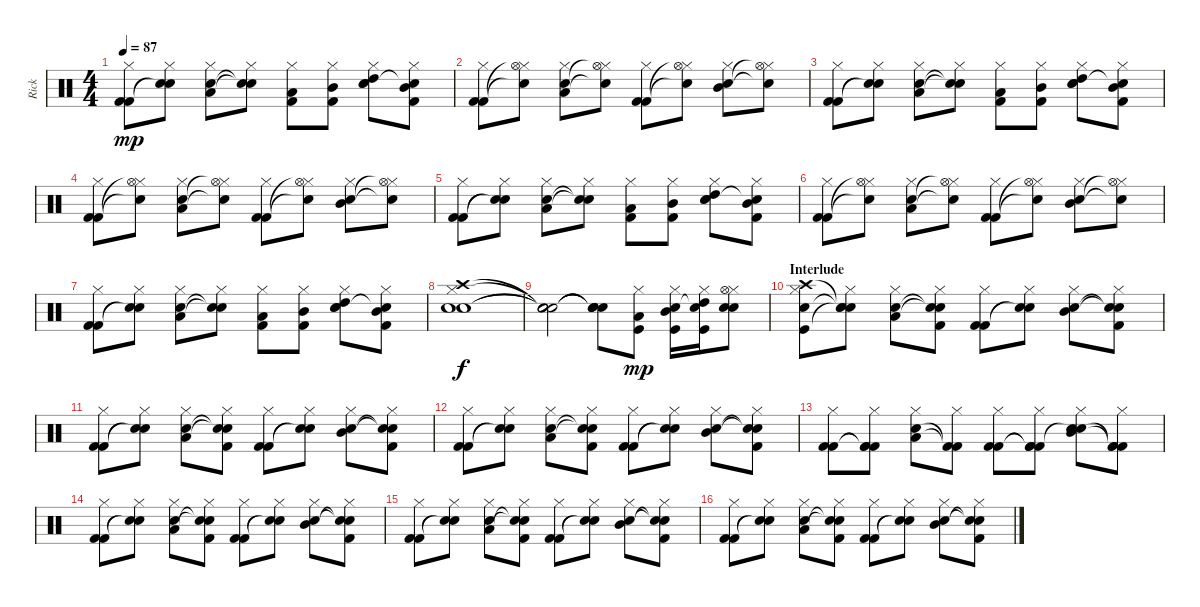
\track ("Rick" "Rick") {instrument percussion}
\staff {score}
\articulation defaults
\ts (4 4)
\tempo 87
\clef neutral
\ks c
("Hi-Hat (closed)" "Kick (hit) 2" "Kick (hit) 2").8{dy mp} ("Hi-Hat (closed)" "Snare (hit)"{t} "Snare (hit)"{t}).8 ("Hi-Hat (closed)" "Electric Snare (hit)" "Low Tom (hit)").8 ("Hi-Hat (closed)" "Snare (hit)"{t} "Snare (hit)"{t}).8 ("Hi-Hat (closed)" "Low Tom (hit)" "Kick (hit) 2").8 ("Hi-Hat (closed)" "Mid Tom (hit)" "Kick (hit) 2").8 ("Hi-Hat (closed)" "Electric Snare (hit)" "High Tom (hit)" "Snare (hit) 2").8 ("Hi-Hat (closed)" "Mid Tom (hit)" "Kick (hit) 2" "Snare (hit)"{t}).8 |
("Hi-Hat (closed)" "Kick (hit) 2" "Kick (hit) 2").8 ("Hi-Hat (closed)" "Hi-Hat (open)"{t} "Snare (hit)"{t}).8 ("Hi-Hat (closed)" "Electric Snare (hit)" "Low Tom (hit)").8 ("Hi-Hat (closed)" "Hi-Hat (open)"{t} "Snare (hit)"{t}).8 ("Hi-Hat (closed)" "Kick (hit) 2" "Kick (hit) 2").8 ("Hi-Hat (closed)" "Hi-Hat (open)"{t} "Snare (hit)"{t}).8 ("Hi-Hat (closed)" "Electric Snare (hit)" "Mid Tom (hit)").8 ("Hi-Hat (closed)" "Hi-Hat (open)"{t} "Snare (hit)"{t}).8 |
("Hi-Hat (closed)" "Kick (hit) 2" "Kick (hit) 2").8 ("Hi-Hat (closed)" "Snare (hit)"{t} "Snare (hit)"{t}).8 ("Hi-Hat (closed)" "Electric Snare (hit)" "Low Tom (hit)").8 ("Hi-Hat (closed)" "Snare (hit)"{t} "Snare (hit)"{t}).8 ("Hi-Hat (closed)" "Low Tom (hit)" "Kick (hit) 2").8 ("Hi-Hat (closed)" "Mid Tom (hit)" "Kick (hit) 2").8 ("Hi-Hat (closed)" "Electric Snare (hit)" "High Tom (hit)" "Snare (hit) 2").8 ("Hi-Hat (closed)" "Mid Tom (hit)" "Kick (hit) 2" "Snare (hit)"{t}).8 |
("Hi-Hat (closed)" "Kick (hit) 2" "Kick (hit) 2").8 ("Hi-Hat (closed)" "Hi-Hat (open)"{t} "Snare (hit)"{t}).8 ("Hi-Hat (closed)" "Electric Snare (hit)" "Low Tom (hit)").8 ("Hi-Hat (closed)" "Hi-Hat (open)"{t} "Snare (hit)"{t}).8 ("Hi-Hat (closed)" "Kick (hit) 2" "Kick (hit) 2").8 ("Hi-Hat (closed)" "Hi-Hat (open)"{t} "Snare (hit)"{t}).8 ("Hi-Hat (closed)" "Electric Snare (hit)" "Mid Tom (hit)").8 ("Hi-Hat (closed)" "Hi-Hat (open)"{t} "Snare (hit)"{t}).8 |
("Hi-Hat (closed)" "Kick (hit) 2" "Kick (hit) 2").8 ("Hi-Hat (closed)" "Snare (hit)"{t} "Snare (hit)"{t}).8 ("Hi-Hat (closed)" "Electric Snare (hit)" "Low Tom (hit)").8 ("Hi-Hat (closed)" "Snare (hit)"{t} "Snare (hit)"{t}).8 ("Hi-Hat (closed)" "Low Tom (hit)" "Kick (hit) 2").8 ("Hi-Hat (closed)" "Mid Tom (hit)" "Kick (hit) 2").8 ("Hi-Hat (closed)" "Electric Snare (hit)" "High Tom (hit)" "Snare (hit) 2").8 ("Hi-Hat (closed)" "Mid Tom (hit)" "Kick (hit) 2" "Snare (hit)"{t}).8 |
("Hi-Hat (closed)" "Kick (hit) 2" "Kick (hit) 2").8 ("Hi-Hat (closed)" "Hi-Hat (open)"{t} "Snare (hit)"{t}).8 ("Hi-Hat (closed)" "Electric Snare (hit)" "Low Tom (hit)").8 ("Hi-Hat (closed)" "Hi-Hat (open)"{t} "Snare (hit)"{t}).8 ("Hi-Hat (closed)" "Kick (hit) 2" "Kick (hit) 2").8 ("Hi-Hat (closed)" "Hi-Hat (open)"{t} "Snare (hit)"{t}).8 ("Hi-Hat (closed)" "Electric Snare (hit)" "Mid Tom (hit)").8 ("Hi-Hat (closed)" "Hi-Hat (open)"{t} "Snare (hit)"{t}).8 |
("Hi-Hat (closed)" "Kick (hit) 2" "Kick (hit) 2").8 ("Hi-Hat (closed)" "Snare (hit)"{t} "Snare (hit)"{t}).8 ("Hi-Hat (closed)" "Electric Snare (hit)" "Low Tom (hit)").8 ("Hi-Hat (closed)" "Snare (hit)"{t} "Snare (hit)"{t}).8 ("Hi-Hat (closed)" "Low Tom (hit)" "Kick (hit) 2").8 ("Hi-Hat (closed)" "Mid Tom (hit)" "Kick (hit) 2").8 ("Hi-Hat (closed)" "Electric Snare (hit)" "High Tom (hit)" "Snare (hit) 2").8 ("Hi-Hat (closed)" "Mid Tom (hit)" "Kick (hit) 2" "Snare (hit)"{t}).8 |
("Hi-Hat (closed)" "Electric Snare (hit)" "Snare (hit) 2" "Crash high (hit)").1{dy f} |
("Snare (hit)"{t} "Snare (hit)"{t} "Snare (hit)"{t} "Snare (hit)"{t}).2 ("Snare (hit)"{t} "Snare (hit)"{t} "Snare (hit)"{t} "Snare (hit)"{t}).8 ("Hi-Hat (closed)" "Kick (hit)" "Low Tom (hit)").8{dy mp} ("Hi-Hat (closed)" "Kick (hit)" "Mid Tom (hit)" "Electric Snare (hit)").16 ("Hi-Hat (closed)" "Kick (hit)" "High Tom (hit)" "Snare (hit) 2"{t}).16 ("Hi-Hat (closed)" "Electric Snare (hit)" "Snare (hit) 2" "Hi-Hat (open)").8 |
\section ("" "Interlude")
("Hi-Hat (closed)" "Electric Snare (hit)" "Kick (hit)" "Crash high (hit)").8 ("Hi-Hat (closed)" "Snare (hit)"{t} "Snare (hit)"{t} "Snare (hit)"{t}).8 ("Hi-Hat (closed)" "Electric Snare (hit)" "Low Tom (hit)").8 ("Hi-Hat (closed)" "Snare (hit)"{t} "Snare (hit)"{t} "Kick (hit) 2").8 ("Hi-Hat (closed)" "Kick (hit) 2" "Kick (hit) 2").8 ("Hi-Hat (closed)" "Snare (hit)"{t} "Snare (hit)"{t}).8 ("Hi-Hat (closed)" "Electric Snare (hit)" "Mid Tom (hit)").8 ("Hi-Hat (closed)" "Snare (hit)"{t} "Snare (hit)"{t} "Kick (hit) 2").8 |
("Hi-Hat (closed)" "Kick (hit) 2" "Kick (hit) 2").8 ("Hi-Hat (closed)" "Snare (hit)"{t} "Snare (hit)"{t}).8 ("Hi-Hat (closed)" "Electric Snare (hit)" "Low Tom (hit)").8 ("Hi-Hat (closed)" "Snare (hit)"{t} "Snare (hit)"{t} "Kick (hit) 2").8 ("Hi-Hat (closed)" "Kick (hit) 2" "Kick (hit) 2").8 ("Hi-Hat (closed)" "Snare (hit)"{t} "Snare (hit)"{t}).8 ("Hi-Hat (closed)" "Electric Snare (hit)" "Mid Tom (hit)").8 ("Hi-Hat (closed)" "Snare (hit)"{t} "Snare (hit)"{t} "Kick (hit) 2").8 |
("Hi-Hat (closed)" "Kick (hit) 2" "Kick (hit) 2").8 ("Hi-Hat (closed)" "Snare (hit)"{t} "Snare (hit)"{t}).8 ("Hi-Hat (closed)" "Electric Snare (hit)" "Low Tom (hit)").8 ("Hi-Hat (closed)" "Snare (hit)"{t} "Snare (hit)"{t} "Kick (hit) 2").8 ("Hi-Hat (closed)" "Kick (hit) 2" "Kick (hit) 2").8 ("Hi-Hat (closed)" "Snare (hit)"{t} "Snare (hit)"{t}).8 ("Hi-Hat (closed)" "Electric Snare (hit)" "Mid Tom (hit)").8 ("Hi-Hat (closed)" "Snare (hit)"{t} "Snare (hit)"{t} "Kick (hit) 2").8 |
("Hi-Hat (closed)" "Kick (hit) 2" "Kick (hit) 2").8 ("Hi-Hat (closed)" "Kick (hit) 2"{t} "Kick (hit) 2"{t} "Kick (hit) 2").8 ("Hi-Hat (closed)" "Electric Snare (hit)" "Low Tom (hit)").8 ("Hi-Hat (closed)" "Kick (hit) 2"{t} "Kick (hit) 2"{t}).8 ("Hi-Hat (closed)" "Kick (hit) 2" "Kick (hit) 2").8 ("Hi-Hat (closed)" "Kick (hit) 2"{t} "Kick (hit) 2"{t} "Kick (hit) 2").8 ("Hi-Hat (closed)" "Electric Snare (hit)" "Mid Tom (hit)" "Electric Snare (hit)"{t}).8 ("Hi-Hat (closed)" "Kick (hit) 2"{t} "Kick (hit) 2"{t} "Kick (hit) 2").8 |
("Hi-Hat (closed)" "Kick (hit) 2" "Kick (hit) 2").8 ("Hi-Hat (closed)" "Snare (hit)"{t} "Snare (hit)"{t}).8 ("Hi-Hat (closed)" "Electric Snare (hit)" "Low Tom (hit)").8 ("Hi-Hat (closed)" "Snare (hit)"{t} "Snare (hit)"{t} "Kick (hit) 2").8 ("Hi-Hat (closed)" "Kick (hit) 2" "Kick (hit) 2").8 ("Hi-Hat (closed)" "Snare (hit)"{t} "Snare (hit)"{t}).8 ("Hi-Hat (closed)" "Electric Snare (hit)" "Mid Tom (hit)").8 ("Hi-Hat (closed)" "Snare (hit)"{t} "Snare (hit)"{t} "Kick (hit) 2").8 |
("Hi-Hat (closed)" "Kick (hit) 2" "Kick (hit) 2").8 ("Hi-Hat (closed)" "Snare (hit)"{t} "Snare (hit)"{t}).8 ("Hi-Hat (closed)" "Electric Snare (hit)" "Low Tom (hit)").8 ("Hi-Hat (closed)" "Snare (hit)"{t} "Snare (hit)"{t} "Kick (hit) 2").8 ("Hi-Hat (closed)" "Kick (hit) 2" "Kick (hit) 2").8 ("Hi-Hat (closed)" "Snare (hit)"{t} "Snare (hit)"{t}).8 ("Hi-Hat (closed)" "Electric Snare (hit)" "Mid Tom (hit)").8 ("Hi-Hat (closed)" "Snare (hit)"{t} "Snare (hit)"{t} "Kick (hit) 2").8 |
("Hi-Hat (closed)" "Kick (hit) 2" "Kick (hit) 2").8 ("Hi-Hat (closed)" "Snare (hit)"{t} "Snare (hit)"{t}).8 ("Hi-Hat (closed)" "Electric Snare (hit)" "Low Tom (hit)").8 ("Hi-Hat (closed)" "Snare (hit)"{t} "Snare (hit)"{t} "Kick (hit) 2").8 ("Hi-Hat (closed)" "Kick (hit) 2" "Kick (hit) 2").8 ("Hi-Hat (closed)" "Snare (hit)"{t} "Snare (hit)"{t}).8 ("Hi-Hat (closed)" "Electric Snare (hit)" "Mid Tom (hit)").8 ("Hi-Hat (closed)" "Snare (hit)"{t} "Snare (hit)"{t} "Kick (hit) 2").8
